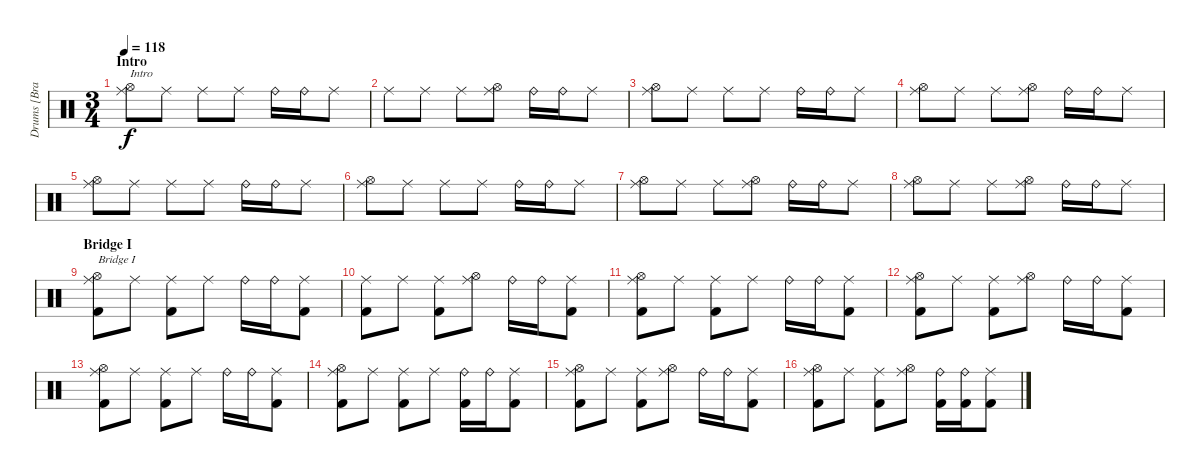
\track ("Drums [Brann Dailor]" "Drums [Bra") {instrument percussion}
\staff {score}
\articulation defaults
\ts (3 4)
\section ("" "Intro")
\tempo 118
\clef neutral
\ks c
("Ride (middle)" "Hi-Hat (open)").8{txt "Intro" dy f} "Ride (middle)".8 "Ride (middle)".8 "Ride (middle)".8 "Ride (bell)".16 "Ride (bell)".16 "Ride (middle)".8 |
"Ride (middle)".8 "Ride (middle)".8 "Ride (middle)".8 ("Ride (middle)" "Hi-Hat (open)").8 "Ride (bell)".16 "Ride (bell)".16 "Ride (middle)".8 |
("Ride (middle)" "Hi-Hat (open)").8 "Ride (middle)".8 "Ride (middle)".8 "Ride (middle)".8 "Ride (bell)".16 "Ride (bell)".16 "Ride (middle)".8 |
("Ride (middle)" "Hi-Hat (open)").8 "Ride (middle)".8 "Ride (middle)".8 ("Ride (middle)" "Hi-Hat (open)").8 "Ride (bell)".16 "Ride (bell)".16 "Ride (middle)".8 |
("Ride (middle)" "Hi-Hat (open)").8 "Ride (middle)".8 "Ride (middle)".8 "Ride (middle)".8 "Ride (bell)".16 "Ride (bell)".16 "Ride (middle)".8 |
("Ride (middle)" "Hi-Hat (open)").8 "Ride (middle)".8 "Ride (middle)".8 "Ride (middle)".8 "Ride (bell)".16 "Ride (bell)".16 "Ride (middle)".8 |
("Ride (middle)" "Hi-Hat (open)").8 "Ride (middle)".8 "Ride (middle)".8 ("Ride (middle)" "Hi-Hat (open)").8 "Ride (bell)".16 "Ride (bell)".16 "Ride (middle)".8 |
("Ride (middle)" "Hi-Hat (open)").8 "Ride (middle)".8 "Ride (middle)".8 ("Ride (middle)" "Hi-Hat (open)").8 "Ride (bell)".16 "Ride (bell)".16 "Ride (middle)".8 |
\section ("" "Bridge I")
("Ride (middle)" "Hi-Hat (open)" "Kick (hit) 2").8{txt "Bridge I"} "Ride (middle)".8 ("Ride (middle)" "Kick (hit) 2").8 "Ride (middle)".8 "Ride (bell)".16 "Ride (bell)".16 ("Ride (middle)" "Kick (hit) 2").8 |
("Ride (middle)" "Kick (hit) 2").8 "Ride (middle)".8 ("Ride (middle)" "Kick (hit) 2").8 ("Ride (middle)" "Hi-Hat (open)").8 "Ride (bell)".16 "Ride (bell)".16 ("Ride (middle)" "Kick (hit) 2").8 |
("Ride (middle)" "Hi-Hat (open)" "Kick (hit) 2").8 "Ride (middle)".8 ("Ride (middle)" "Kick (hit) 2").8 "Ride (middle)".8 "Ride (bell)".16 "Ride (bell)".16 ("Ride (middle)" "Kick (hit) 2").8 |
("Ride (middle)" "Hi-Hat (open)" "Kick (hit) 2").8 "Ride (middle)".8 ("Ride (middle)" "Kick (hit) 2").8 ("Ride (middle)" "Hi-Hat (open)").8 "Ride (bell)".16 "Ride (bell)".16 ("Ride (middle)" "Kick (hit) 2").8 |
("Ride (middle)" "Hi-Hat (open)" "Kick (hit) 2").8 "Ride (middle)".8 ("Ride (middle)" "Kick (hit) 2").8 "Ride (middle)".8 "Ride (bell)".16 "Ride (bell)".16 ("Ride (middle)" "Kick (hit) 2").8 |
("Ride (middle)" "Hi-Hat (open)" "Kick (hit) 2").8 "Ride (middle)".8 ("Ride (middle)" "Kick (hit) 2").8 "Ride (middle)".8 ("Ride (bell)" "Kick (hit) 2").16 "Ride (bell)".16 ("Ride (middle)" "Kick (hit) 2").8 |
("Ride (middle)" "Hi-Hat (open)" "Kick (hit) 2").8 "Ride (middle)".8 ("Ride (middle)" "Kick (hit) 2").8 ("Ride (middle)" "Hi-Hat (open)").8 "Ride (bell)".16 "Ride (bell)".16 ("Ride (middle)" "Kick (hit) 2").8 |
("Ride (middle)" "Hi-Hat (open)" "Kick (hit) 2").8 "Ride (middle)".8 ("Ride (middle)" "Kick (hit) 2").8 ("Ride (middle)" "Hi-Hat (open)").8 ("Ride (bell)" "Kick (hit) 2").16 ("Ride (bell)" "Kick (hit) 2").16 ("Ride (middle)" "Kick (hit) 2").8
